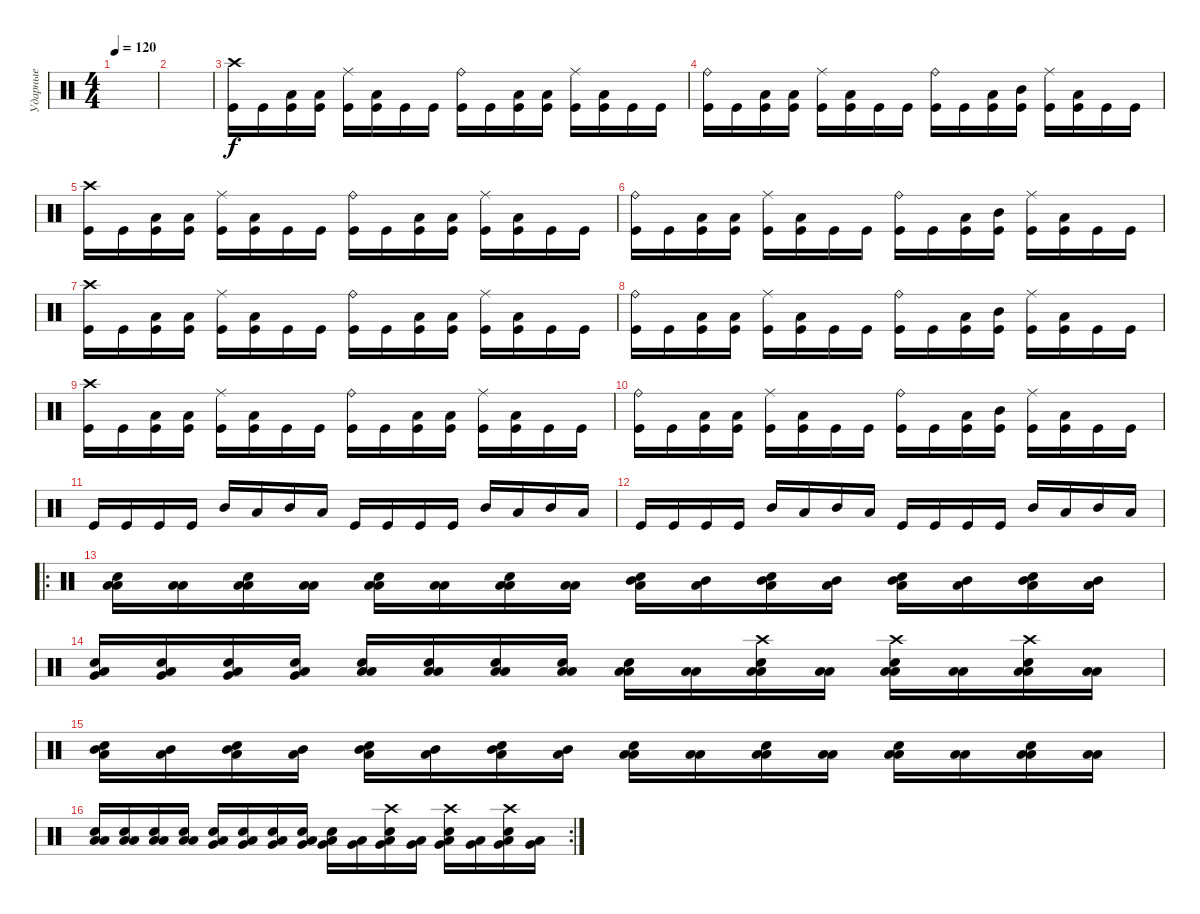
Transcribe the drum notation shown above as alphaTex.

\track ("Ударные" "Ударные") {instrument percussion}
\staff {score}
\articulation defaults
\ts (4 4)
\tempo 120
\clef neutral
\ks c
|
|
("Crash high (hit)" "Kick (hit)").16 "Kick (hit)".16 ("Low Tom (hit)" "Kick (hit)").16 ("Low Tom (hit)" "Kick (hit)").16 ("Ride (middle)" "Kick (hit)").16 ("Low Tom (hit)" "Kick (hit)").16 "Kick (hit)".16 "Kick (hit)".16 ("Ride (bell)" "Kick (hit)").16 "Kick (hit)".16 ("Low Tom (hit)" "Kick (hit)").16 ("Low Tom (hit)" "Kick (hit)").16 ("Ride (middle)" "Kick (hit)").16 ("Low Tom (hit)" "Kick (hit)").16 "Kick (hit)".16 "Kick (hit)".16 |
("Ride (bell)" "Kick (hit)").16 "Kick (hit)".16 ("Low Tom (hit)" "Kick (hit)").16 ("Low Tom (hit)" "Kick (hit)").16 ("Ride (middle)" "Kick (hit)").16 ("Low Tom (hit)" "Kick (hit)").16 "Kick (hit)".16 "Kick (hit)".16 ("Ride (bell)" "Kick (hit)").16 "Kick (hit)".16 ("Low Tom (hit)" "Kick (hit)").16 ("Mid Tom (hit)" "Kick (hit)").16 ("Ride (middle)" "Kick (hit)").16 ("Low Tom (hit)" "Kick (hit)").16 "Kick (hit)".16 "Kick (hit)".16 |
("Crash high (hit)" "Kick (hit)").16 "Kick (hit)".16 ("Low Tom (hit)" "Kick (hit)").16 ("Low Tom (hit)" "Kick (hit)").16 ("Ride (middle)" "Kick (hit)").16 ("Low Tom (hit)" "Kick (hit)").16 "Kick (hit)".16 "Kick (hit)".16 ("Ride (bell)" "Kick (hit)").16 "Kick (hit)".16 ("Low Tom (hit)" "Kick (hit)").16 ("Low Tom (hit)" "Kick (hit)").16 ("Ride (middle)" "Kick (hit)").16 ("Low Tom (hit)" "Kick (hit)").16 "Kick (hit)".16 "Kick (hit)".16 |
("Ride (bell)" "Kick (hit)").16 "Kick (hit)".16 ("Low Tom (hit)" "Kick (hit)").16 ("Low Tom (hit)" "Kick (hit)").16 ("Ride (middle)" "Kick (hit)").16 ("Low Tom (hit)" "Kick (hit)").16 "Kick (hit)".16 "Kick (hit)".16 ("Ride (bell)" "Kick (hit)").16 "Kick (hit)".16 ("Low Tom (hit)" "Kick (hit)").16 ("Mid Tom (hit)" "Kick (hit)").16 ("Ride (middle)" "Kick (hit)").16 ("Low Tom (hit)" "Kick (hit)").16 "Kick (hit)".16 "Kick (hit)".16 |
("Crash high (hit)" "Kick (hit)").16 "Kick (hit)".16 ("Low Tom (hit)" "Kick (hit)").16 ("Low Tom (hit)" "Kick (hit)").16 ("Ride (middle)" "Kick (hit)").16 ("Low Tom (hit)" "Kick (hit)").16 "Kick (hit)".16 "Kick (hit)".16 ("Ride (bell)" "Kick (hit)").16 "Kick (hit)".16 ("Low Tom (hit)" "Kick (hit)").16 ("Low Tom (hit)" "Kick (hit)").16 ("Ride (middle)" "Kick (hit)").16 ("Low Tom (hit)" "Kick (hit)").16 "Kick (hit)".16 "Kick (hit)".16 |
("Ride (bell)" "Kick (hit)").16 "Kick (hit)".16 ("Low Tom (hit)" "Kick (hit)").16 ("Low Tom (hit)" "Kick (hit)").16 ("Ride (middle)" "Kick (hit)").16 ("Low Tom (hit)" "Kick (hit)").16 "Kick (hit)".16 "Kick (hit)".16 ("Ride (bell)" "Kick (hit)").16 "Kick (hit)".16 ("Low Tom (hit)" "Kick (hit)").16 ("Mid Tom (hit)" "Kick (hit)").16 ("Ride (middle)" "Kick (hit)").16 ("Low Tom (hit)" "Kick (hit)").16 "Kick (hit)".16 "Kick (hit)".16 |
("Crash high (hit)" "Kick (hit)").16 "Kick (hit)".16 ("Low Tom (hit)" "Kick (hit)").16 ("Low Tom (hit)" "Kick (hit)").16 ("Ride (middle)" "Kick (hit)").16 ("Low Tom (hit)" "Kick (hit)").16 "Kick (hit)".16 "Kick (hit)".16 ("Ride (bell)" "Kick (hit)").16 "Kick (hit)".16 ("Low Tom (hit)" "Kick (hit)").16 ("Low Tom (hit)" "Kick (hit)").16 ("Ride (middle)" "Kick (hit)").16 ("Low Tom (hit)" "Kick (hit)").16 "Kick (hit)".16 "Kick (hit)".16 |
("Ride (bell)" "Kick (hit)").16 "Kick (hit)".16 ("Low Tom (hit)" "Kick (hit)").16 ("Low Tom (hit)" "Kick (hit)").16 ("Ride (middle)" "Kick (hit)").16 ("Low Tom (hit)" "Kick (hit)").16 "Kick (hit)".16 "Kick (hit)".16 ("Ride (bell)" "Kick (hit)").16 "Kick (hit)".16 ("Low Tom (hit)" "Kick (hit)").16 ("Mid Tom (hit)" "Kick (hit)").16 ("Ride (middle)" "Kick (hit)").16 ("Low Tom (hit)" "Kick (hit)").16 "Kick (hit)".16 "Kick (hit)".16 |
"Kick (hit)".16 "Kick (hit)".16 "Kick (hit)".16 "Kick (hit)".16 "Mid Tom (hit)".16 "Low Tom (hit)".16 "Mid Tom (hit)".16 "Low Tom (hit)".16 "Kick (hit)".16 "Kick (hit)".16 "Kick (hit)".16 "Kick (hit)".16 "Mid Tom (hit)".16 "Low Tom (hit)".16 "Mid Tom (hit)".16 "Low Tom (hit)".16 |
"Kick (hit)".16 "Kick (hit)".16 "Kick (hit)".16 "Kick (hit)".16 "Mid Tom (hit)".16 "Low Tom (hit)".16 "Mid Tom (hit)".16 "Low Tom (hit)".16 "Kick (hit)".16 "Kick (hit)".16 "Kick (hit)".16 "Kick (hit)".16 "Mid Tom (hit)".16 "Low Tom (hit)".16 "Mid Tom (hit)".16 "Low Tom (hit)".16 |
\ro
("Low Tom (hit)" "Electric Snare (hit)" "Low Tom (hit)").16 ("Low Tom (hit)" "Low Tom (hit)").16 ("Low Tom (hit)" "Electric Snare (hit)" "Low Tom (hit)").16 ("Low Tom (hit)" "Low Tom (hit)").16 ("Low Tom (hit)" "Electric Snare (hit)" "Low Tom (hit)").16 ("Low Tom (hit)" "Low Tom (hit)").16 ("Low Tom (hit)" "Electric Snare (hit)" "Low Tom (hit)").16 ("Low Tom (hit)" "Low Tom (hit)").16 ("Low Tom (hit)" "Snare (hit) 2" "Mid Tom (hit)").16 ("Low Tom (hit)" "Mid Tom (hit)").16 ("Low Tom (hit)" "Snare (hit) 2" "Mid Tom (hit)").16 ("Low Tom (hit)" "Mid Tom (hit)").16 ("Low Tom (hit)" "Snare (hit) 2" "Mid Tom (hit)").16 ("Low Tom (hit)" "Mid Tom (hit)").16 ("Low Tom (hit)" "Snare (hit) 2" "Mid Tom (hit)").16 ("Low Tom (hit)" "Mid Tom (hit)").16 |
("Low Tom (hit)" "Electric Snare (hit)" "Very Low Tom (hit)").16 ("Low Tom (hit)" "Electric Snare (hit)" "Very Low Tom (hit)").16 ("Low Tom (hit)" "Electric Snare (hit)" "Very Low Tom (hit)").16 ("Low Tom (hit)" "Electric Snare (hit)" "Very Low Tom (hit)").16 ("Low Tom (hit)" "Snare (hit) 2" "Low Floor Tom (hit)").16 ("Low Tom (hit)" "Snare (hit) 2" "Low Floor Tom (hit)").16 ("Low Tom (hit)" "Snare (hit) 2" "Low Floor Tom (hit)").16 ("Low Tom (hit)" "Snare (hit) 2" "Low Floor Tom (hit)").16 ("Low Tom (hit)" "Snare (hit) 2" "Low Floor Tom (hit)").16 ("Low Tom (hit)" "Low Floor Tom (hit)").16 ("Low Tom (hit)" "Snare (hit) 2" "Crash high (hit)" "Low Floor Tom (hit)").16 ("Low Tom (hit)" "Low Floor Tom (hit)").16 ("Low Tom (hit)" "Snare (hit) 2" "Crash high (hit)" "Low Floor Tom (hit)").16 ("Low Tom (hit)" "Low Floor Tom (hit)").16 ("Low Tom (hit)" "Snare (hit) 2" "Crash high (hit)" "Low Floor Tom (hit)").16 ("Low Tom (hit)" "Low Floor Tom (hit)").16 |
("Low Tom (hit)" "Snare (hit) 2" "Mid Tom (hit)").16 ("Low Tom (hit)" "Mid Tom (hit)").16 ("Low Tom (hit)" "Snare (hit) 2" "Mid Tom (hit)").16 ("Low Tom (hit)" "Mid Tom (hit)").16 ("Low Tom (hit)" "Snare (hit) 2" "Mid Tom (hit)").16 ("Low Tom (hit)" "Mid Tom (hit)").16 ("Low Tom (hit)" "Snare (hit) 2" "Mid Tom (hit)").16 ("Low Tom (hit)" "Mid Tom (hit)").16 ("Low Tom (hit)" "Electric Snare (hit)" "Low Tom (hit)").16 ("Low Tom (hit)" "Low Tom (hit)").16 ("Low Tom (hit)" "Electric Snare (hit)" "Low Tom (hit)").16 ("Low Tom (hit)" "Low Tom (hit)").16 ("Low Tom (hit)" "Electric Snare (hit)" "Low Tom (hit)").16 ("Low Tom (hit)" "Low Tom (hit)").16 ("Low Tom (hit)" "Electric Snare (hit)" "Low Tom (hit)").16 ("Low Tom (hit)" "Low Tom (hit)").16 |
\rc 2
("Low Tom (hit)" "Snare (hit) 2" "Low Floor Tom (hit)").16 ("Low Tom (hit)" "Snare (hit) 2" "Low Floor Tom (hit)").16 ("Low Tom (hit)" "Snare (hit) 2" "Low Floor Tom (hit)").16 ("Low Tom (hit)" "Snare (hit) 2" "Low Floor Tom (hit)").16 ("Low Tom (hit)" "Electric Snare (hit)" "Very Low Tom (hit)").16 ("Low Tom (hit)" "Electric Snare (hit)" "Very Low Tom (hit)").16 ("Low Tom (hit)" "Electric Snare (hit)" "Very Low Tom (hit)").16 ("Low Tom (hit)" "Electric Snare (hit)" "Very Low Tom (hit)").16 ("Low Tom (hit)" "Electric Snare (hit)" "Very Low Tom (hit)").16 ("Low Tom (hit)" "Very Low Tom (hit)").16 ("Low Tom (hit)" "Electric Snare (hit)" "Crash high (hit)" "Very Low Tom (hit)").16 ("Low Tom (hit)" "Very Low Tom (hit)").16 ("Low Tom (hit)" "Electric Snare (hit)" "Crash high (hit)" "Very Low Tom (hit)").16 ("Low Tom (hit)" "Very Low Tom (hit)").16 ("Low Tom (hit)" "Electric Snare (hit)" "Crash high (hit)" "Very Low Tom (hit)").16 ("Low Tom (hit)" "Very Low Tom (hit)").16
